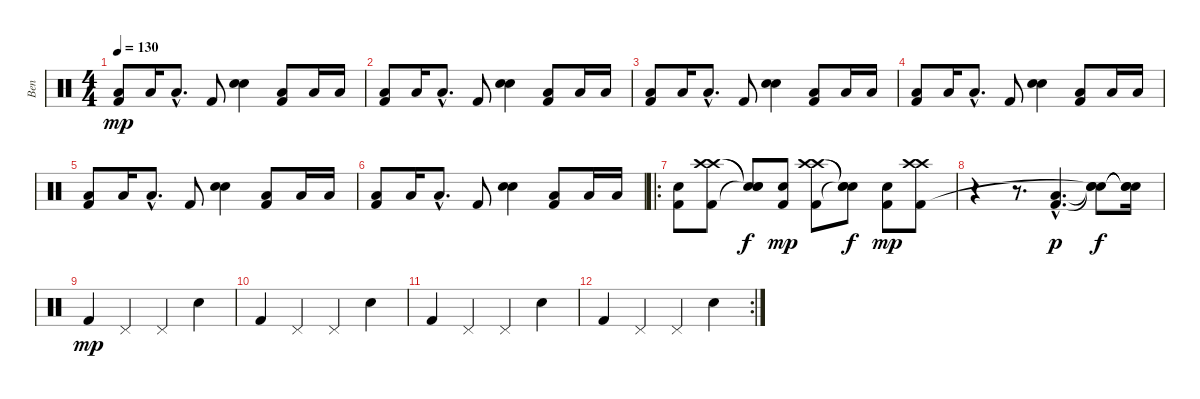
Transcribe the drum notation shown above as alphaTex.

\track ("Ben" "Ben") {instrument percussion}
\staff {score}
\articulation defaults
\ts (4 4)
\tempo 130
\clef neutral
\ks c
("Low Tom (hit)" "Kick (hit) 2").8{dy mp} "Low Tom (hit)".16 "Low Tom (hit)"{hac}.8{d} "Kick (hit) 2".8 ("Snare (hit) 2" "Electric Snare (hit)").4 ("Low Tom (hit)" "Kick (hit) 2").8 "Low Tom (hit)".16 "Low Tom (hit)".16 |
("Low Tom (hit)" "Kick (hit) 2").8 "Low Tom (hit)".16 "Low Tom (hit)"{hac}.8{d} "Kick (hit) 2".8 ("Snare (hit) 2" "Electric Snare (hit)").4 ("Low Tom (hit)" "Kick (hit) 2").8 "Low Tom (hit)".16 "Low Tom (hit)".16 |
("Low Tom (hit)" "Kick (hit) 2").8 "Low Tom (hit)".16 "Low Tom (hit)"{hac}.8{d} "Kick (hit) 2".8 ("Snare (hit) 2" "Electric Snare (hit)").4 ("Low Tom (hit)" "Kick (hit) 2").8 "Low Tom (hit)".16 "Low Tom (hit)".16 |
("Low Tom (hit)" "Kick (hit) 2").8 "Low Tom (hit)".16 "Low Tom (hit)"{hac}.8{d} "Kick (hit) 2".8 ("Snare (hit) 2" "Electric Snare (hit)").4 ("Low Tom (hit)" "Kick (hit) 2").8 "Low Tom (hit)".16 "Low Tom (hit)".16 |
("Low Tom (hit)" "Kick (hit) 2").8 "Low Tom (hit)".16 "Low Tom (hit)"{hac}.8{d} "Kick (hit) 2".8 ("Snare (hit) 2" "Electric Snare (hit)").4 ("Low Tom (hit)" "Kick (hit) 2").8 "Low Tom (hit)".16 "Low Tom (hit)".16 |
("Low Tom (hit)" "Kick (hit) 2").8 "Low Tom (hit)".16 "Low Tom (hit)"{hac}.8{d} "Kick (hit) 2".8 ("Snare (hit) 2" "Electric Snare (hit)").4 ("Low Tom (hit)" "Kick (hit) 2").8 "Low Tom (hit)".16 "Low Tom (hit)".16 |
\ro
("Electric Snare (hit)" "Kick (hit) 2").8 ("Crash high (hit)" "Crash high (hit)" "Kick (hit) 2").8 ("Snare (hit)"{t} "Snare (hit)"{t} "Snare (hit)"{t}).8{dy f} ("Electric Snare (hit)" "Kick (hit) 2").8{dy mp} ("Crash high (hit)" "Crash high (hit)" "Kick (hit) 2").8 ("Snare (hit)"{t} "Snare (hit)"{t} "Snare (hit)"{t}).8{dy f} ("Electric Snare (hit)" "Kick (hit) 2").8{dy mp} ("Crash high (hit)" "Crash high (hit)" "Kick (hit) 2").8 |
r.4 r.8{d} ("Kick (hit) 2"{hac} "Low Tom (hit)"{hac}).4{d dy p} ("Snare (hit)"{t} "Snare (hit)"{t} "Snare (hit)"{t}).8{dy f} ("Snare (hit)"{t} "Snare (hit)"{t} "Snare (hit)"{t}).16 |
"Kick (hit) 2".4{dy mp} "Pedal Hi-Hat (hit)".4 "Pedal Hi-Hat (hit)".4 "Electric Snare (hit)".4 |
"Kick (hit) 2".4 "Pedal Hi-Hat (hit)".4 "Pedal Hi-Hat (hit)".4 "Electric Snare (hit)".4 |
"Kick (hit) 2".4 "Pedal Hi-Hat (hit)".4 "Pedal Hi-Hat (hit)".4 "Electric Snare (hit)".4 |
\rc 2 "Kick (hit) 2".4 "Pedal Hi-Hat (hit)".4 "Pedal Hi-Hat (hit)".4 "Electric Snare (hit)".4
